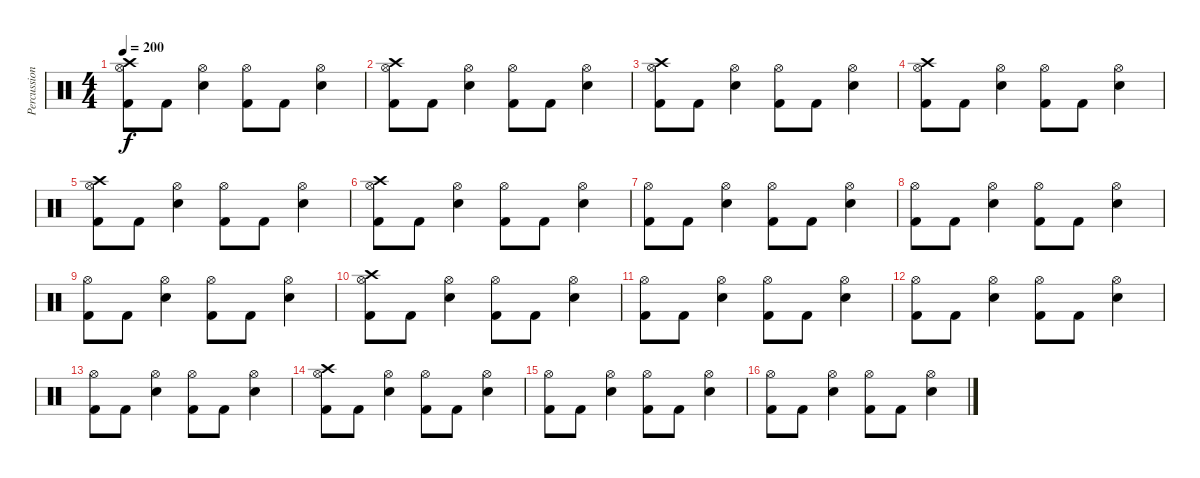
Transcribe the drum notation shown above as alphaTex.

\track ("Percussion" "Percussion") {instrument percussion}
\staff {score}
\articulation defaults
\ts (4 4)
\tempo 200
\clef neutral
\ks c
("Hi-Hat (open)" "Crash high (hit)" "Kick (hit) 2").8{dy f} "Kick (hit) 2".8 ("Hi-Hat (open)" "Electric Snare (hit)").4 ("Hi-Hat (open)" "Kick (hit) 2").8 "Kick (hit) 2".8 ("Hi-Hat (open)" "Electric Snare (hit)").4 |
("Hi-Hat (open)" "Crash high (hit)" "Kick (hit) 2").8 "Kick (hit) 2".8 ("Hi-Hat (open)" "Electric Snare (hit)").4 ("Hi-Hat (open)" "Kick (hit) 2").8 "Kick (hit) 2".8 ("Hi-Hat (open)" "Electric Snare (hit)").4 |
("Hi-Hat (open)" "Crash high (hit)" "Kick (hit) 2").8 "Kick (hit) 2".8 ("Hi-Hat (open)" "Electric Snare (hit)").4 ("Hi-Hat (open)" "Kick (hit) 2").8 "Kick (hit) 2".8 ("Hi-Hat (open)" "Electric Snare (hit)").4 |
("Hi-Hat (open)" "Crash high (hit)" "Kick (hit) 2").8 "Kick (hit) 2".8 ("Hi-Hat (open)" "Electric Snare (hit)").4 ("Hi-Hat (open)" "Kick (hit) 2").8 "Kick (hit) 2".8 ("Hi-Hat (open)" "Electric Snare (hit)").4 |
("Hi-Hat (open)" "Crash high (hit)" "Kick (hit) 2").8 "Kick (hit) 2".8 ("Hi-Hat (open)" "Electric Snare (hit)").4 ("Hi-Hat (open)" "Kick (hit) 2").8 "Kick (hit) 2".8 ("Hi-Hat (open)" "Electric Snare (hit)").4 |
("Hi-Hat (open)" "Crash high (hit)" "Kick (hit) 2").8 "Kick (hit) 2".8 ("Hi-Hat (open)" "Electric Snare (hit)").4 ("Hi-Hat (open)" "Kick (hit) 2").8 "Kick (hit) 2".8 ("Hi-Hat (open)" "Electric Snare (hit)").4 |
("Hi-Hat (open)" "Kick (hit) 2").8 "Kick (hit) 2".8 ("Hi-Hat (open)" "Electric Snare (hit)").4 ("Hi-Hat (open)" "Kick (hit) 2").8 "Kick (hit) 2".8 ("Hi-Hat (open)" "Electric Snare (hit)").4 |
("Hi-Hat (open)" "Kick (hit) 2").8 "Kick (hit) 2".8 ("Hi-Hat (open)" "Electric Snare (hit)").4 ("Hi-Hat (open)" "Kick (hit) 2").8 "Kick (hit) 2".8 ("Hi-Hat (open)" "Electric Snare (hit)").4 |
("Hi-Hat (open)" "Kick (hit) 2").8 "Kick (hit) 2".8 ("Hi-Hat (open)" "Electric Snare (hit)").4 ("Hi-Hat (open)" "Kick (hit) 2").8 "Kick (hit) 2".8 ("Hi-Hat (open)" "Electric Snare (hit)").4 |
("Hi-Hat (open)" "Crash high (hit)" "Kick (hit) 2").8 "Kick (hit) 2".8 ("Hi-Hat (open)" "Electric Snare (hit)").4 ("Hi-Hat (open)" "Kick (hit) 2").8 "Kick (hit) 2".8 ("Hi-Hat (open)" "Electric Snare (hit)").4 |
("Hi-Hat (open)" "Kick (hit) 2").8 "Kick (hit) 2".8 ("Hi-Hat (open)" "Electric Snare (hit)").4 ("Hi-Hat (open)" "Kick (hit) 2").8 "Kick (hit) 2".8 ("Hi-Hat (open)" "Electric Snare (hit)").4 |
("Hi-Hat (open)" "Kick (hit) 2").8 "Kick (hit) 2".8 ("Hi-Hat (open)" "Electric Snare (hit)").4 ("Hi-Hat (open)" "Kick (hit) 2").8 "Kick (hit) 2".8 ("Hi-Hat (open)" "Electric Snare (hit)").4 |
("Hi-Hat (open)" "Kick (hit) 2").8 "Kick (hit) 2".8 ("Hi-Hat (open)" "Electric Snare (hit)").4 ("Hi-Hat (open)" "Kick (hit) 2").8 "Kick (hit) 2".8 ("Hi-Hat (open)" "Electric Snare (hit)").4 |
("Hi-Hat (open)" "Crash high (hit)" "Kick (hit) 2").8 "Kick (hit) 2".8 ("Hi-Hat (open)" "Electric Snare (hit)").4 ("Hi-Hat (open)" "Kick (hit) 2").8 "Kick (hit) 2".8 ("Hi-Hat (open)" "Electric Snare (hit)").4 |
("Hi-Hat (open)" "Kick (hit) 2").8 "Kick (hit) 2".8 ("Hi-Hat (open)" "Electric Snare (hit)").4 ("Hi-Hat (open)" "Kick (hit) 2").8 "Kick (hit) 2".8 ("Hi-Hat (open)" "Electric Snare (hit)").4 |
("Hi-Hat (open)" "Kick (hit) 2").8 "Kick (hit) 2".8 ("Hi-Hat (open)" "Electric Snare (hit)").4 ("Hi-Hat (open)" "Kick (hit) 2").8 "Kick (hit) 2".8 ("Hi-Hat (open)" "Electric Snare (hit)").4
